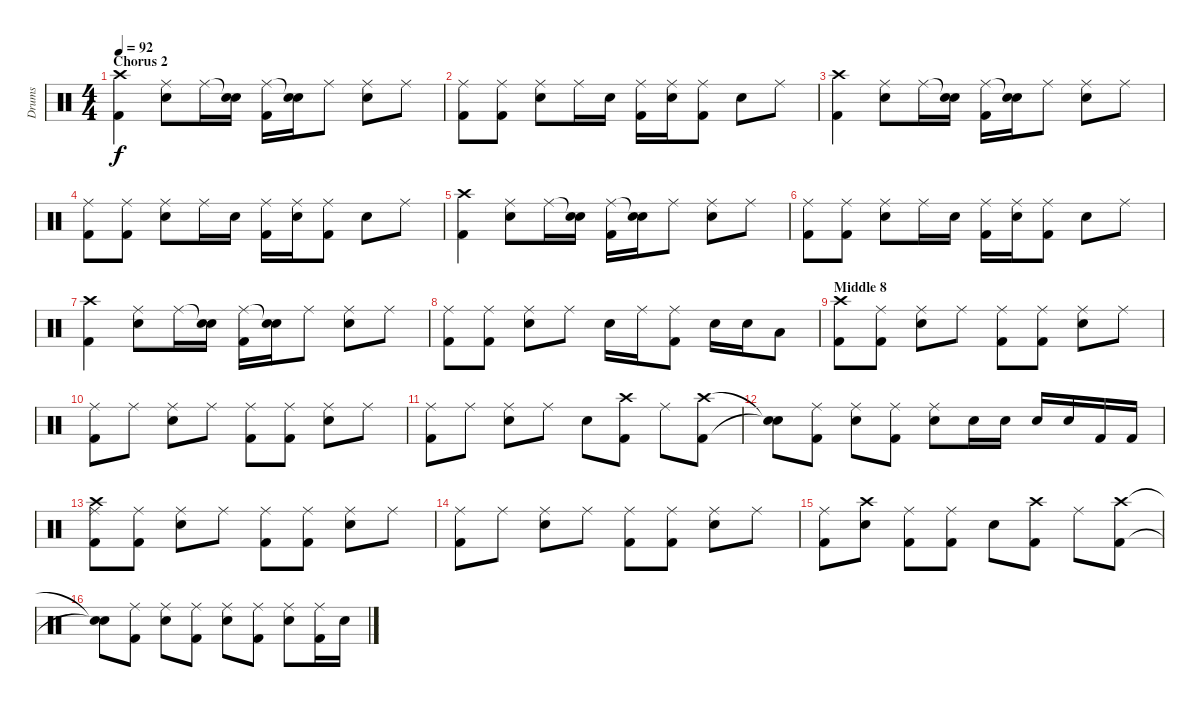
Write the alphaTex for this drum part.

\track ("Drums" "Drums") {instrument percussion}
\staff {score}
\articulation defaults
\ts (4 4)
\section ("" "Chorus 2")
\tempo 92
\clef neutral
\ks c
("Crash high (hit)" "Kick (hit) 2").4{dy f} ("Ride (middle)" "Snare (hit) 2").8 "Ride (middle)".16 ("Snare (hit)"{t} "Snare (hit) 2").16 ("Ride (middle)" "Kick (hit) 2").16 ("Snare (hit)"{t} "Snare (hit) 2").16 "Ride (middle)".8 ("Ride (middle)" "Snare (hit) 2").8 "Ride (middle)".8 |
("Ride (middle)" "Kick (hit) 2").8 ("Ride (middle)" "Kick (hit) 2").8 ("Ride (middle)" "Snare (hit) 2").8 "Ride (middle)".16 "Snare (hit) 2".16 ("Ride (middle)" "Kick (hit) 2").16 ("Ride (middle)" "Snare (hit) 2").16 ("Ride (middle)" "Kick (hit) 2").8 "Snare (hit) 2".8 "Ride (middle)".8 |
("Crash high (hit)" "Kick (hit) 2").4 ("Ride (middle)" "Snare (hit) 2").8 "Ride (middle)".16 ("Snare (hit)"{t} "Snare (hit) 2").16 ("Ride (middle)" "Kick (hit) 2").16 ("Snare (hit)"{t} "Snare (hit) 2").16 "Ride (middle)".8 ("Ride (middle)" "Snare (hit) 2").8 "Ride (middle)".8 |
("Ride (middle)" "Kick (hit) 2").8 ("Ride (middle)" "Kick (hit) 2").8 ("Ride (middle)" "Snare (hit) 2").8 "Ride (middle)".16 "Snare (hit) 2".16 ("Ride (middle)" "Kick (hit) 2").16 ("Ride (middle)" "Snare (hit) 2").16 ("Ride (middle)" "Kick (hit) 2").8 "Snare (hit) 2".8 "Ride (middle)".8 |
("Crash high (hit)" "Kick (hit) 2").4 ("Ride (middle)" "Snare (hit) 2").8 "Ride (middle)".16 ("Snare (hit)"{t} "Snare (hit) 2").16 ("Ride (middle)" "Kick (hit) 2").16 ("Snare (hit)"{t} "Snare (hit) 2").16 "Ride (middle)".8 ("Ride (middle)" "Snare (hit) 2").8 "Ride (middle)".8 |
("Ride (middle)" "Kick (hit) 2").8 ("Ride (middle)" "Kick (hit) 2").8 ("Ride (middle)" "Snare (hit) 2").8 "Ride (middle)".16 "Snare (hit) 2".16 ("Ride (middle)" "Kick (hit) 2").16 ("Ride (middle)" "Snare (hit) 2").16 ("Ride (middle)" "Kick (hit) 2").8 "Snare (hit) 2".8 "Ride (middle)".8 |
("Crash high (hit)" "Kick (hit) 2").4 ("Ride (middle)" "Snare (hit) 2").8 "Ride (middle)".16 ("Snare (hit)"{t} "Snare (hit) 2").16 ("Ride (middle)" "Kick (hit) 2").16 ("Snare (hit)"{t} "Snare (hit) 2").16 "Ride (middle)".8 ("Ride (middle)" "Snare (hit) 2").8 "Ride (middle)".8 |
("Ride (middle)" "Kick (hit) 2").8 ("Ride (middle)" "Kick (hit) 2").8 ("Ride (middle)" "Snare (hit) 2").8 "Ride (middle)".8 "Snare (hit) 2".16 "Ride (middle)".16 ("Ride (middle)" "Kick (hit) 2").8 "Snare (hit) 2".16 "Snare (hit) 2".16 "Low Floor Tom (hit)".8 |
\section ("" "Middle 8")
("Crash high (hit)" "Kick (hit) 2").8 ("Ride (middle)" "Kick (hit) 2").8 ("Ride (middle)" "Snare (hit) 2").8 "Ride (middle)".8 ("Ride (middle)" "Kick (hit) 2").8 ("Ride (middle)" "Kick (hit) 2").8 ("Ride (middle)" "Snare (hit) 2").8 "Ride (middle)".8 |
("Ride (middle)" "Kick (hit) 2").8 "Ride (middle)".8 ("Ride (middle)" "Snare (hit) 2").8 "Ride (middle)".8 ("Ride (middle)" "Kick (hit) 2").8 ("Ride (middle)" "Kick (hit) 2").8 ("Ride (middle)" "Snare (hit) 2").8 "Ride (middle)".8 |
("Ride (middle)" "Kick (hit) 2").8 "Ride (middle)".8 ("Ride (middle)" "Snare (hit) 2").8 "Ride (middle)".8 "Snare (hit) 2".8 ("Crash high (hit)" "Kick (hit) 2").8 "Ride (middle)".8 ("Crash high (hit)" "Kick (hit) 2").8 |
("Snare (hit)"{t} "Snare (hit)"{t}).8 ("Ride (middle)" "Kick (hit) 2").8 ("Ride (middle)" "Snare (hit) 2").8 ("Ride (middle)" "Kick (hit) 2").8 ("Ride (middle)" "Snare (hit) 2").8 "Snare (hit) 2".16 "Snare (hit) 2".16 "Snare (hit) 2".16 "Snare (hit) 2".16 "Kick (hit) 2".16 "Kick (hit) 2".16 |
("Crash high (hit)" "Ride (middle)" "Kick (hit) 2").8 ("Ride (middle)" "Kick (hit) 2").8 ("Ride (middle)" "Snare (hit) 2").8 "Ride (middle)".8 ("Ride (middle)" "Kick (hit) 2").8 ("Ride (middle)" "Kick (hit) 2").8 ("Ride (middle)" "Snare (hit) 2").8 "Ride (middle)".8 |
("Ride (middle)" "Kick (hit) 2").8 "Ride (middle)".8 ("Ride (middle)" "Snare (hit) 2").8 "Ride (middle)".8 ("Ride (middle)" "Kick (hit) 2").8 ("Ride (middle)" "Kick (hit) 2").8 ("Ride (middle)" "Snare (hit) 2").8 "Ride (middle)".8 |
("Ride (middle)" "Kick (hit) 2").8 ("Crash high (hit)" "Snare (hit) 2").8 ("Ride (middle)" "Kick (hit) 2").8 ("Ride (middle)" "Kick (hit) 2").8 "Snare (hit) 2".8 ("Crash high (hit)" "Kick (hit) 2").8 "Ride (middle)".8 ("Crash high (hit)" "Kick (hit) 2").8 |
("Snare (hit)"{t} "Snare (hit)"{t}).8 ("Ride (middle)" "Kick (hit) 2").8 ("Ride (middle)" "Snare (hit) 2").8 ("Ride (middle)" "Kick (hit) 2").8 ("Ride (middle)" "Snare (hit) 2").8 ("Ride (middle)" "Kick (hit) 2").8 ("Ride (middle)" "Snare (hit) 2").8 ("Ride (middle)" "Kick (hit) 2").16 "Snare (hit) 2".16
